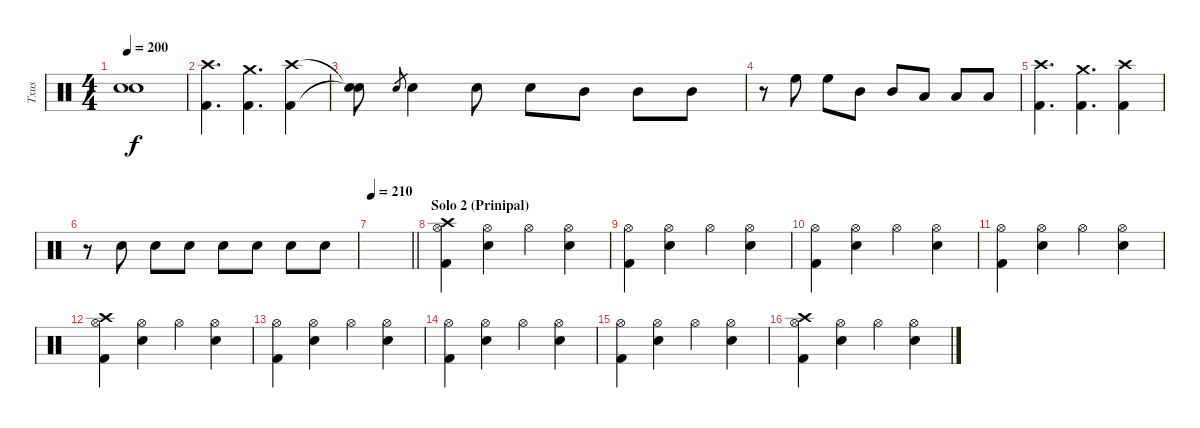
\track ("Txus" "Txus") {instrument percussion}
\staff
\articulation defaults
\ts (4 4)
\tempo 200
\clef neutral
\ks c
("Snare (hit)"{t} "Snare (hit)"{t}).1{dy f} |
("Kick (hit) 2" "Crash high (hit)").4{d} ("Kick (hit) 2" "Crash medium (hit)").4{d} ("Kick (hit) 2" "Crash high (hit)").4 |
("Snare (hit)"{t} "Snare (hit)"{t}).8 "Electric Snare (hit)".8{gr} "Electric Snare (hit)".4 "Electric Snare (hit)".8 "Electric Snare (hit)".8 "Mid Tom (hit)".8 "Mid Tom (hit)".8 "Mid Tom (hit)".8 |
r.8 "High Floor Tom (hit)".8 "High Floor Tom (hit)".8 "Mid Tom (hit)".8 "Mid Tom (hit)".8 "Low Tom (hit)".8 "Low Tom (hit)".8 "Low Tom (hit)".8 |
("Kick (hit) 2" "Crash high (hit)").4{d} ("Kick (hit) 2" "Crash medium (hit)").4{d} ("Kick (hit) 2" "Crash high (hit)").4 |
r.8 "Electric Snare (hit)".8 "Electric Snare (hit)".8 "Electric Snare (hit)".8 "Electric Snare (hit)".8 "Electric Snare (hit)".8 "Electric Snare (hit)".8 "Electric Snare (hit)".8 |
\tempo 210
\barLineRight lightlight
|
\section ("" "Solo 2 (Prinipal)")
("Hi-Hat (open)" "Kick (hit) 2" "Crash high (hit)").4 ("Hi-Hat (open)" "Electric Snare (hit)").4 "Hi-Hat (open)".4 ("Hi-Hat (open)" "Electric Snare (hit)").4 |
("Hi-Hat (open)" "Kick (hit) 2").4 ("Hi-Hat (open)" "Electric Snare (hit)").4 "Hi-Hat (open)".4 ("Hi-Hat (open)" "Electric Snare (hit)").4 |
("Hi-Hat (open)" "Kick (hit) 2").4 ("Hi-Hat (open)" "Electric Snare (hit)").4 "Hi-Hat (open)".4 ("Hi-Hat (open)" "Electric Snare (hit)").4 |
("Hi-Hat (open)" "Kick (hit) 2").4 ("Hi-Hat (open)" "Electric Snare (hit)").4 "Hi-Hat (open)".4 ("Hi-Hat (open)" "Electric Snare (hit)").4 |
("Hi-Hat (open)" "Kick (hit) 2" "Crash high (hit)").4 ("Hi-Hat (open)" "Electric Snare (hit)").4 "Hi-Hat (open)".4 ("Hi-Hat (open)" "Electric Snare (hit)").4 |
("Hi-Hat (open)" "Kick (hit) 2").4 ("Hi-Hat (open)" "Electric Snare (hit)").4 "Hi-Hat (open)".4 ("Hi-Hat (open)" "Electric Snare (hit)").4 |
("Hi-Hat (open)" "Kick (hit) 2").4 ("Hi-Hat (open)" "Electric Snare (hit)").4 "Hi-Hat (open)".4 ("Hi-Hat (open)" "Electric Snare (hit)").4 |
("Hi-Hat (open)" "Kick (hit) 2").4 ("Hi-Hat (open)" "Electric Snare (hit)").4 "Hi-Hat (open)".4 ("Hi-Hat (open)" "Electric Snare (hit)").4 |
("Hi-Hat (open)" "Kick (hit) 2" "Crash high (hit)").4 ("Hi-Hat (open)" "Electric Snare (hit)").4 "Hi-Hat (open)".4 ("Hi-Hat (open)" "Electric Snare (hit)").4
